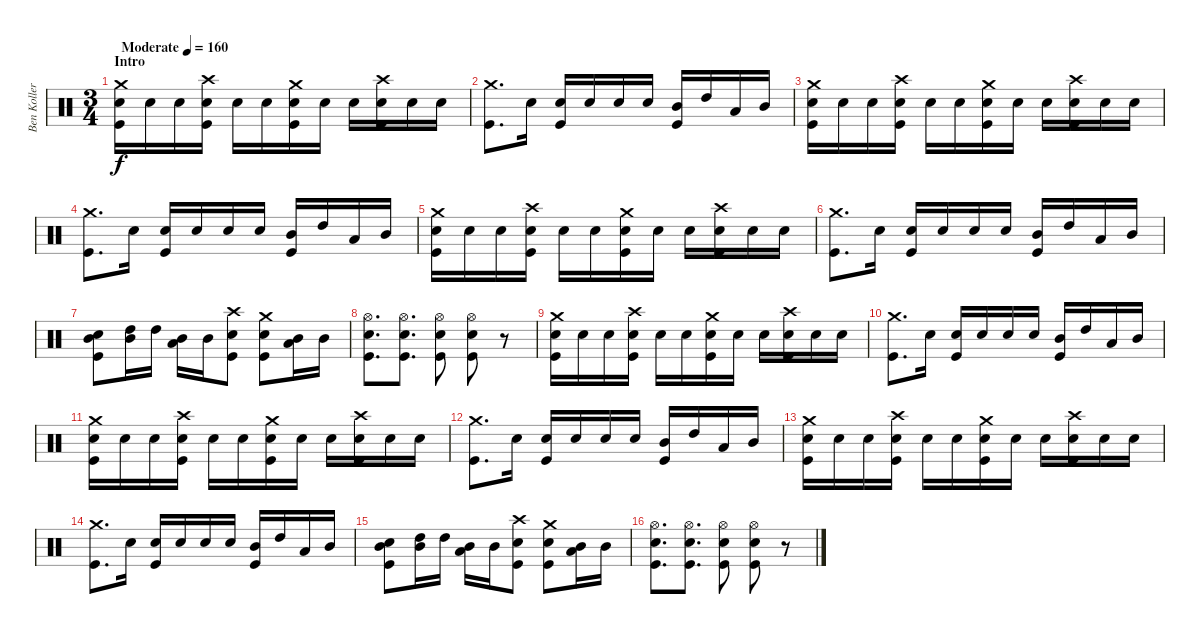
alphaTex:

\track ("Ben Koller" "Ben Koller") {instrument percussion}
\staff {score}
\articulation defaults
\ts (3 4)
\section ("" "Intro")
\tempo (160 "Moderate")
\clef neutral
\ks c
("Crash medium (hit)" "Electric Snare (hit)" "Kick (hit)").16{dy f} "Electric Snare (hit)".16 "Electric Snare (hit)".16 ("Crash high (hit)" "Electric Snare (hit)" "Kick (hit)").16 "Electric Snare (hit)".16 "Electric Snare (hit)".16 ("Crash medium (hit)" "Electric Snare (hit)" "Kick (hit)").16 "Electric Snare (hit)".16 "Electric Snare (hit)".16 ("Crash high (hit)" "Electric Snare (hit)" "Kick (hit)").16 "Electric Snare (hit)".16 "Electric Snare (hit)".16 |
("Crash medium (hit)" "Kick (hit)").8{d} "Electric Snare (hit)".16 ("Electric Snare (hit)" "Kick (hit)").16 "Electric Snare (hit)".16 "Electric Snare (hit)".16 "Electric Snare (hit)".16 ("Mid Tom (hit)" "Kick (hit)").16 "High Tom (hit)".16 "Low Tom (hit)".16 "Mid Tom (hit)".16 |
("Crash medium (hit)" "Electric Snare (hit)" "Kick (hit)").16 "Electric Snare (hit)".16 "Electric Snare (hit)".16 ("Crash high (hit)" "Electric Snare (hit)" "Kick (hit)").16 "Electric Snare (hit)".16 "Electric Snare (hit)".16 ("Crash medium (hit)" "Electric Snare (hit)" "Kick (hit)").16 "Electric Snare (hit)".16 "Electric Snare (hit)".16 ("Crash high (hit)" "Electric Snare (hit)" "Kick (hit)").16 "Electric Snare (hit)".16 "Electric Snare (hit)".16 |
("Crash medium (hit)" "Kick (hit)").8{d} "Electric Snare (hit)".16 ("Electric Snare (hit)" "Kick (hit)").16 "Electric Snare (hit)".16 "Electric Snare (hit)".16 "Electric Snare (hit)".16 ("Mid Tom (hit)" "Kick (hit)").16 "High Tom (hit)".16 "Low Tom (hit)".16 "Mid Tom (hit)".16 |
("Crash medium (hit)" "Electric Snare (hit)" "Kick (hit)").16 "Electric Snare (hit)".16 "Electric Snare (hit)".16 ("Crash high (hit)" "Electric Snare (hit)" "Kick (hit)").16 "Electric Snare (hit)".16 "Electric Snare (hit)".16 ("Crash medium (hit)" "Electric Snare (hit)" "Kick (hit)").16 "Electric Snare (hit)".16 "Electric Snare (hit)".16 ("Crash high (hit)" "Electric Snare (hit)" "Kick (hit)").16 "Electric Snare (hit)".16 "Electric Snare (hit)".16 |
("Crash medium (hit)" "Kick (hit)").8{d} "Electric Snare (hit)".16 ("Electric Snare (hit)" "Kick (hit)").16 "Electric Snare (hit)".16 "Electric Snare (hit)".16 "Electric Snare (hit)".16 ("Mid Tom (hit)" "Kick (hit)").16 "High Tom (hit)".16 "Low Tom (hit)".16 "Mid Tom (hit)".16 |
("Mid Tom (hit)" "Electric Snare (hit)" "Kick (hit)").8 ("High Tom (hit)" "Mid Tom (hit)").16 "High Tom (hit)".16 ("Mid Tom (hit)" "Low Tom (hit)").16 "Mid Tom (hit)".16 ("Crash high (hit)" "Electric Snare (hit)" "Kick (hit)").8 ("Crash medium (hit)" "Electric Snare (hit)" "Kick (hit)").8 ("Mid Tom (hit)" "Low Tom (hit)").16 "Mid Tom (hit)".16 |
("Hi-Hat (open)" "Electric Snare (hit)" "Kick (hit)").8{d} ("Hi-Hat (open)" "Electric Snare (hit)" "Kick (hit)").8{d} ("Hi-Hat (open)" "Electric Snare (hit)" "Kick (hit)").8 ("Hi-Hat (open)" "Electric Snare (hit)" "Kick (hit)").8 r.8 |
("Crash medium (hit)" "Electric Snare (hit)" "Kick (hit)").16 "Electric Snare (hit)".16 "Electric Snare (hit)".16 ("Crash high (hit)" "Electric Snare (hit)" "Kick (hit)").16 "Electric Snare (hit)".16 "Electric Snare (hit)".16 ("Crash medium (hit)" "Electric Snare (hit)" "Kick (hit)").16 "Electric Snare (hit)".16 "Electric Snare (hit)".16 ("Crash high (hit)" "Electric Snare (hit)" "Kick (hit)").16 "Electric Snare (hit)".16 "Electric Snare (hit)".16 |
("Crash medium (hit)" "Kick (hit)").8{d} "Electric Snare (hit)".16 ("Electric Snare (hit)" "Kick (hit)").16 "Electric Snare (hit)".16 "Electric Snare (hit)".16 "Electric Snare (hit)".16 ("Mid Tom (hit)" "Kick (hit)").16 "High Tom (hit)".16 "Low Tom (hit)".16 "Mid Tom (hit)".16 |
("Crash medium (hit)" "Electric Snare (hit)" "Kick (hit)").16 "Electric Snare (hit)".16 "Electric Snare (hit)".16 ("Crash high (hit)" "Electric Snare (hit)" "Kick (hit)").16 "Electric Snare (hit)".16 "Electric Snare (hit)".16 ("Crash medium (hit)" "Electric Snare (hit)" "Kick (hit)").16 "Electric Snare (hit)".16 "Electric Snare (hit)".16 ("Crash high (hit)" "Electric Snare (hit)" "Kick (hit)").16 "Electric Snare (hit)".16 "Electric Snare (hit)".16 |
("Crash medium (hit)" "Kick (hit)").8{d} "Electric Snare (hit)".16 ("Electric Snare (hit)" "Kick (hit)").16 "Electric Snare (hit)".16 "Electric Snare (hit)".16 "Electric Snare (hit)".16 ("Mid Tom (hit)" "Kick (hit)").16 "High Tom (hit)".16 "Low Tom (hit)".16 "Mid Tom (hit)".16 |
("Crash medium (hit)" "Electric Snare (hit)" "Kick (hit)").16 "Electric Snare (hit)".16 "Electric Snare (hit)".16 ("Crash high (hit)" "Electric Snare (hit)" "Kick (hit)").16 "Electric Snare (hit)".16 "Electric Snare (hit)".16 ("Crash medium (hit)" "Electric Snare (hit)" "Kick (hit)").16 "Electric Snare (hit)".16 "Electric Snare (hit)".16 ("Crash high (hit)" "Electric Snare (hit)" "Kick (hit)").16 "Electric Snare (hit)".16 "Electric Snare (hit)".16 |
("Crash medium (hit)" "Kick (hit)").8{d} "Electric Snare (hit)".16 ("Electric Snare (hit)" "Kick (hit)").16 "Electric Snare (hit)".16 "Electric Snare (hit)".16 "Electric Snare (hit)".16 ("Mid Tom (hit)" "Kick (hit)").16 "High Tom (hit)".16 "Low Tom (hit)".16 "Mid Tom (hit)".16 |
("Mid Tom (hit)" "Electric Snare (hit)" "Kick (hit)").8 ("High Tom (hit)" "Mid Tom (hit)").16 "High Tom (hit)".16 ("Mid Tom (hit)" "Low Tom (hit)").16 "Mid Tom (hit)".16 ("Crash high (hit)" "Electric Snare (hit)" "Kick (hit)").8 ("Crash medium (hit)" "Electric Snare (hit)" "Kick (hit)").8 ("Mid Tom (hit)" "Low Tom (hit)").16 "Mid Tom (hit)".16 |
("Hi-Hat (open)" "Electric Snare (hit)" "Kick (hit)").8{d} ("Hi-Hat (open)" "Electric Snare (hit)" "Kick (hit)").8{d} ("Hi-Hat (open)" "Electric Snare (hit)" "Kick (hit)").8 ("Hi-Hat (open)" "Electric Snare (hit)" "Kick (hit)").8 r.8
